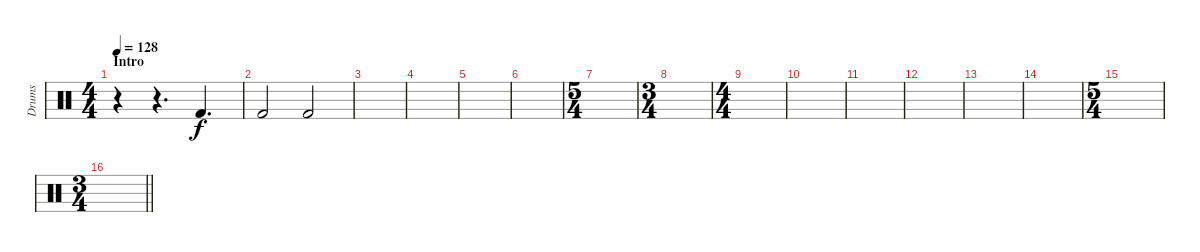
\track ("Drums" "Drums") {instrument percussion}
\staff {score}
\articulation defaults
\ts (4 4)
\section ("" "Intro")
\tempo 128
\clef neutral
\ks c
r.4{dy f} r.4{d} "Kick (hit) 2".4{d} |
"Kick (hit) 2".2 "Kick (hit) 2".2 |
|
|
|
|
\ts (5 4)
|
\ts (3 4)
|
\ts (4 4)
|
|
|
|
|
|
\ts (5 4)
|
\ts (3 4)
\barLineRight lightlight
